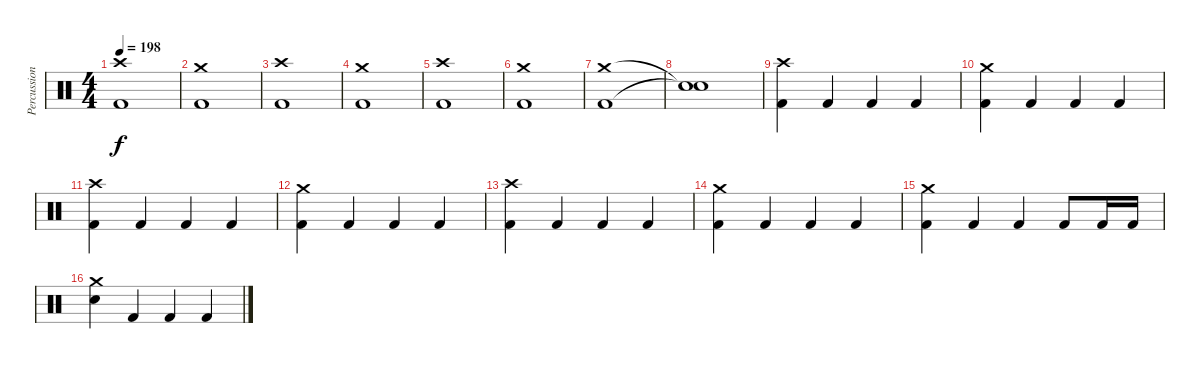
\track ("Percussion" "Percussion") {instrument percussion}
\staff {score}
\articulation defaults
\ts (4 4)
\tempo 198
\clef neutral
\ks c
("Crash high (hit)" "Kick (hit) 2").1{dy f} |
("Crash medium (hit)" "Kick (hit) 2").1 |
("Crash high (hit)" "Kick (hit) 2").1 |
("Crash medium (hit)" "Kick (hit) 2").1 |
("Crash high (hit)" "Kick (hit) 2").1 |
("Crash medium (hit)" "Kick (hit) 2").1 |
("Crash medium (hit)" "Kick (hit) 2").1 |
("Snare (hit)"{t} "Snare (hit)"{t}).1 |
("Crash high (hit)" "Kick (hit) 2").4 "Kick (hit) 2".4 "Kick (hit) 2".4 "Kick (hit) 2".4 |
("Crash medium (hit)" "Kick (hit) 2").4 "Kick (hit) 2".4 "Kick (hit) 2".4 "Kick (hit) 2".4 |
("Crash high (hit)" "Kick (hit) 2").4 "Kick (hit) 2".4 "Kick (hit) 2".4 "Kick (hit) 2".4 |
("Crash medium (hit)" "Kick (hit) 2").4 "Kick (hit) 2".4 "Kick (hit) 2".4 "Kick (hit) 2".4 |
("Crash high (hit)" "Kick (hit) 2").4 "Kick (hit) 2".4 "Kick (hit) 2".4 "Kick (hit) 2".4 |
("Crash medium (hit)" "Kick (hit) 2").4 "Kick (hit) 2".4 "Kick (hit) 2".4 "Kick (hit) 2".4 |
("Crash medium (hit)" "Kick (hit) 2").4 "Kick (hit) 2".4 "Kick (hit) 2".4 "Kick (hit) 2".8 "Kick (hit) 2".16 "Kick (hit) 2".16 |
("Crash medium (hit)" "Electric Snare (hit)").4 "Kick (hit) 2".4 "Kick (hit) 2".4 "Kick (hit) 2".4
